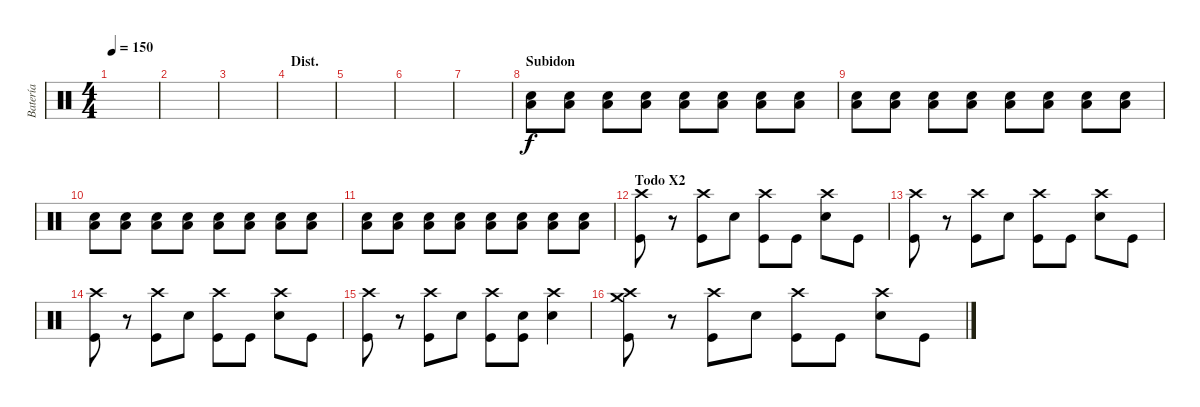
\track ("Batería" "Batería") {instrument percussion}
\staff {score}
\articulation defaults
\ts (4 4)
\tempo 150
\clef neutral
\ks c
|
|
|
\section ("" "Dist.")
|
|
|
|
\section ("" "Subidon")
("Low Floor Tom (hit)" "Snare (hit) 2").8 ("Low Floor Tom (hit)" "Snare (hit) 2").8 ("Low Floor Tom (hit)" "Snare (hit) 2").8 ("Low Floor Tom (hit)" "Snare (hit) 2").8 ("Low Floor Tom (hit)" "Snare (hit) 2").8 ("Low Floor Tom (hit)" "Snare (hit) 2").8 ("Low Floor Tom (hit)" "Snare (hit) 2").8 ("Low Floor Tom (hit)" "Snare (hit) 2").8 |
("Low Floor Tom (hit)" "Snare (hit) 2").8 ("Low Floor Tom (hit)" "Snare (hit) 2").8 ("Low Floor Tom (hit)" "Snare (hit) 2").8 ("Low Floor Tom (hit)" "Snare (hit) 2").8 ("Low Floor Tom (hit)" "Snare (hit) 2").8 ("Low Floor Tom (hit)" "Snare (hit) 2").8 ("Low Floor Tom (hit)" "Snare (hit) 2").8 ("Low Floor Tom (hit)" "Snare (hit) 2").8 |
("Low Floor Tom (hit)" "Snare (hit) 2").8 ("Low Floor Tom (hit)" "Snare (hit) 2").8 ("Low Floor Tom (hit)" "Snare (hit) 2").8 ("Low Floor Tom (hit)" "Snare (hit) 2").8 ("Low Floor Tom (hit)" "Snare (hit) 2").8 ("Low Floor Tom (hit)" "Snare (hit) 2").8 ("Low Floor Tom (hit)" "Snare (hit) 2").8 ("Low Floor Tom (hit)" "Snare (hit) 2").8 |
("Low Floor Tom (hit)" "Snare (hit) 2").8 ("Low Floor Tom (hit)" "Snare (hit) 2").8 ("Low Floor Tom (hit)" "Snare (hit) 2").8 ("Low Floor Tom (hit)" "Snare (hit) 2").8 ("Low Floor Tom (hit)" "Snare (hit) 2").8 ("Low Floor Tom (hit)" "Snare (hit) 2").8 ("Low Floor Tom (hit)" "Snare (hit) 2").8 ("Low Floor Tom (hit)" "Snare (hit) 2").8 |
\section ("" "Todo X2")
("Crash high (hit)" "Kick (hit)").8 r.8 ("Crash high (hit)" "Kick (hit)").8 "Snare (hit) 2".8 ("Crash high (hit)" "Kick (hit)").8 "Kick (hit)".8 ("Crash high (hit)" "Snare (hit) 2").8 "Kick (hit)".8 |
("Crash high (hit)" "Kick (hit)").8 r.8 ("Crash high (hit)" "Kick (hit)").8 "Snare (hit) 2".8 ("Crash high (hit)" "Kick (hit)").8 "Kick (hit)".8 ("Crash high (hit)" "Snare (hit) 2").8 "Kick (hit)".8 |
("Crash high (hit)" "Kick (hit)").8 r.8 ("Crash high (hit)" "Kick (hit)").8 "Snare (hit) 2".8 ("Crash high (hit)" "Kick (hit)").8 "Kick (hit)".8 ("Crash high (hit)" "Snare (hit) 2").8 "Kick (hit)".8 |
("Crash high (hit)" "Kick (hit)").8 r.8 ("Crash high (hit)" "Kick (hit)").8 "Snare (hit) 2".8 ("Crash high (hit)" "Kick (hit)").8 ("Snare (hit) 2" "Kick (hit)").8 ("Crash high (hit)" "Snare (hit) 2").4 |
("Crash high (hit)" "Crash medium (hit)" "Kick (hit)").8 r.8 ("Crash high (hit)" "Kick (hit)").8 "Snare (hit) 2".8 ("Crash high (hit)" "Kick (hit)").8 "Kick (hit)".8 ("Crash high (hit)" "Snare (hit) 2").8 "Kick (hit)".8
